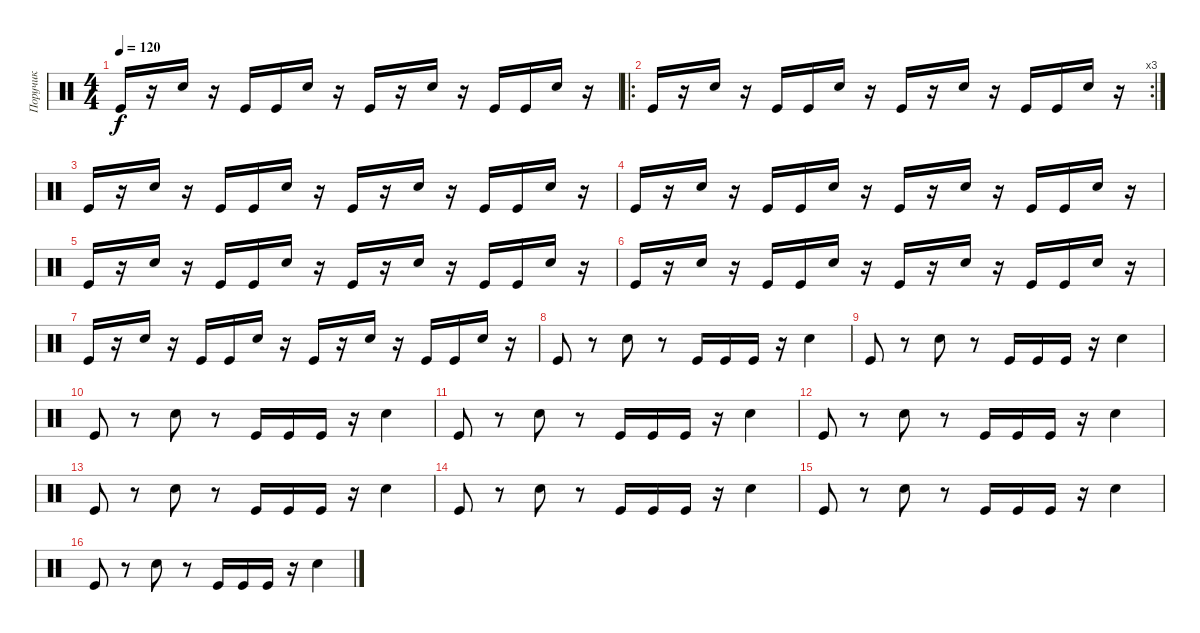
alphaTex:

\track ("Поручик" "Поручик") {instrument percussion}
\staff {score}
\articulation defaults
\ts (4 4)
\tempo 120
\clef neutral
\ks c "Kick (hit)".16{dy f}
r.16 "Snare (hit) 2".16 r.16 "Kick (hit)".16 "Kick (hit)".16 "Snare (hit) 2".16 r.16 "Kick (hit)".16 r.16 "Snare (hit) 2".16 r.16 "Kick (hit)".16 "Kick (hit)".16 "Snare (hit) 2".16 r.16 |
\ro
\rc 3 "Kick (hit)".16
r.16 "Snare (hit) 2".16 r.16 "Kick (hit)".16 "Kick (hit)".16 "Snare (hit) 2".16 r.16 "Kick (hit)".16 r.16 "Snare (hit) 2".16 r.16 "Kick (hit)".16 "Kick (hit)".16 "Snare (hit) 2".16 r.16 |
"Kick (hit)".16 r.16 "Snare (hit) 2".16 r.16 "Kick (hit)".16 "Kick (hit)".16 "Snare (hit) 2".16 r.16 "Kick (hit)".16 r.16 "Snare (hit) 2".16 r.16 "Kick (hit)".16 "Kick (hit)".16 "Snare (hit) 2".16 r.16 |
"Kick (hit)".16 r.16 "Snare (hit) 2".16 r.16 "Kick (hit)".16 "Kick (hit)".16 "Snare (hit) 2".16 r.16 "Kick (hit)".16 r.16 "Snare (hit) 2".16 r.16 "Kick (hit)".16 "Kick (hit)".16 "Snare (hit) 2".16 r.16 |
"Kick (hit)".16 r.16 "Snare (hit) 2".16 r.16 "Kick (hit)".16 "Kick (hit)".16 "Snare (hit) 2".16 r.16 "Kick (hit)".16 r.16 "Snare (hit) 2".16 r.16 "Kick (hit)".16 "Kick (hit)".16 "Snare (hit) 2".16 r.16 |
"Kick (hit)".16 r.16 "Snare (hit) 2".16 r.16 "Kick (hit)".16 "Kick (hit)".16 "Snare (hit) 2".16 r.16 "Kick (hit)".16 r.16 "Snare (hit) 2".16 r.16 "Kick (hit)".16 "Kick (hit)".16 "Snare (hit) 2".16 r.16 |
"Kick (hit)".16 r.16 "Snare (hit) 2".16 r.16 "Kick (hit)".16 "Kick (hit)".16 "Snare (hit) 2".16 r.16 "Kick (hit)".16 r.16 "Snare (hit) 2".16 r.16 "Kick (hit)".16 "Kick (hit)".16 "Snare (hit) 2".16 r.16 |
"Kick (hit)".8 r.8 "Snare (hit) 2".8 r.8 "Kick (hit)".16 "Kick (hit)".16 "Kick (hit)".16 r.16 "Snare (hit) 2".4 |
"Kick (hit)".8 r.8 "Snare (hit) 2".8 r.8 "Kick (hit)".16 "Kick (hit)".16 "Kick (hit)".16 r.16 "Snare (hit) 2".4 |
"Kick (hit)".8 r.8 "Snare (hit) 2".8 r.8 "Kick (hit)".16 "Kick (hit)".16 "Kick (hit)".16 r.16 "Snare (hit) 2".4 |
"Kick (hit)".8 r.8 "Snare (hit) 2".8 r.8 "Kick (hit)".16 "Kick (hit)".16 "Kick (hit)".16 r.16 "Snare (hit) 2".4 |
"Kick (hit)".8 r.8 "Snare (hit) 2".8 r.8 "Kick (hit)".16 "Kick (hit)".16 "Kick (hit)".16 r.16 "Snare (hit) 2".4 |
"Kick (hit)".8 r.8 "Snare (hit) 2".8 r.8 "Kick (hit)".16 "Kick (hit)".16 "Kick (hit)".16 r.16 "Snare (hit) 2".4 |
"Kick (hit)".8 r.8 "Snare (hit) 2".8 r.8 "Kick (hit)".16 "Kick (hit)".16 "Kick (hit)".16 r.16 "Snare (hit) 2".4 |
"Kick (hit)".8 r.8 "Snare (hit) 2".8 r.8 "Kick (hit)".16 "Kick (hit)".16 "Kick (hit)".16 r.16 "Snare (hit) 2".4 |
"Kick (hit)".8 r.8 "Snare (hit) 2".8 r.8 "Kick (hit)".16 "Kick (hit)".16 "Kick (hit)".16 r.16 "Snare (hit) 2".4
